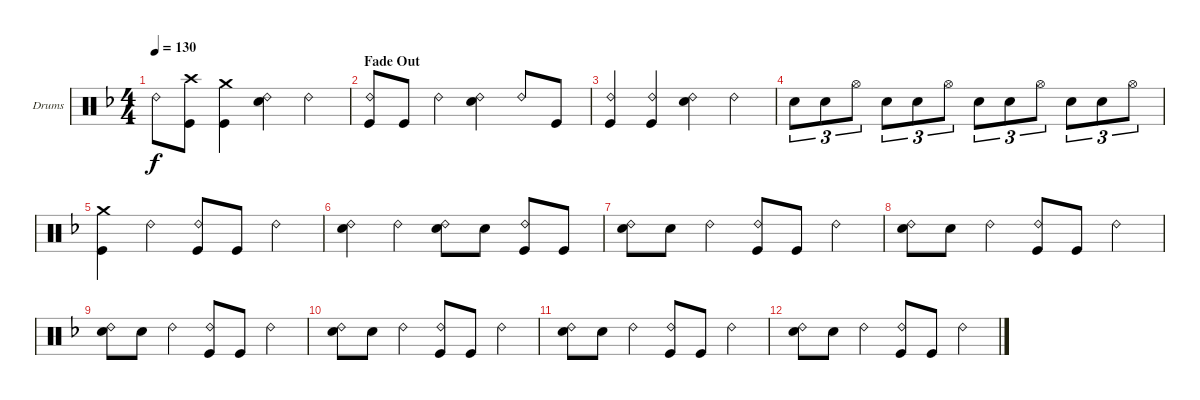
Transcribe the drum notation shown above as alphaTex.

\defaultSystemsLayout 4
\bracketExtendMode groupsimilarinstruments
\firstSystemTrackNameOrientation horizontal
\otherSystemsTrackNameOrientation horizontal
\track ("Drumkit" "Drums") {instrument percussion}
\staff {score}
\articulation defaults
\ts (4 4)
\tempo 130
\clef neutral
\ks dminor "Ride (bell) 2".8{dy f}
("Kick (hit)" "Crash high (hit)").8 ("Kick (hit)" "Crash medium (hit)").4 ("Snare (hit) 2" "Ride (bell) 2").4 "Ride (bell) 2".4 |
\section ("" "Fade Out")
("Kick (hit)" "Ride (bell) 2").8 "Kick (hit)".8 "Ride (bell) 2".4 ("Ride (bell) 2" "Snare (hit) 2").4 "Ride (bell) 2".8 "Kick (hit)".8 |
("Kick (hit)" "Ride (bell) 2").4 ("Kick (hit)" "Ride (bell) 2").4 ("Ride (bell) 2" "Snare (hit) 2").4 "Ride (bell) 2".4 |
"Snare (hit) 2".8{tu (3 2)} "Snare (hit) 2".8{tu (3 2)} "Hi-Hat (open)".8{tu (3 2)} "Snare (hit) 2".8{tu (3 2)} "Snare (hit) 2".8{tu (3 2)} "Hi-Hat (open)".8{tu (3 2)} "Snare (hit) 2".8{tu (3 2)} "Snare (hit) 2".8{tu (3 2)} "Hi-Hat (open)".8{tu (3 2)} "Snare (hit) 2".8{tu (3 2)} "Snare (hit) 2".8{tu (3 2)} "Hi-Hat (open)".8{tu (3 2)} |
("Kick (hit)" "Crash medium (hit)").4 "Ride (bell) 2".4 ("Kick (hit)" "Ride (bell) 2").8 "Kick (hit)".8 "Ride (bell) 2".4 |
("Snare (hit) 2" "Ride (bell) 2").4 "Ride (bell) 2".4 ("Snare (hit) 2" "Ride (bell) 2").8 "Snare (hit) 2".8 ("Kick (hit)" "Ride (bell) 2").8 "Kick (hit)".8 |
("Snare (hit) 2" "Ride (bell) 2").8 "Snare (hit) 2".8 "Ride (bell) 2".4 ("Ride (bell) 2" "Kick (hit)").8 "Kick (hit)".8 "Ride (bell) 2".4 |
("Snare (hit) 2" "Ride (bell) 2").8 "Snare (hit) 2".8 "Ride (bell) 2".4 ("Kick (hit)" "Ride (bell) 2").8 "Kick (hit)".8 "Ride (bell) 2".4 |
("Snare (hit) 2" "Ride (bell) 2").8 "Snare (hit) 2".8 "Ride (bell) 2".4 ("Kick (hit)" "Ride (bell) 2").8 "Kick (hit)".8 "Ride (bell) 2".4 |
("Snare (hit) 2" "Ride (bell) 2").8 "Snare (hit) 2".8 "Ride (bell) 2".4 ("Kick (hit)" "Ride (bell) 2").8 "Kick (hit)".8 "Ride (bell) 2".4 |
("Snare (hit) 2" "Ride (bell) 2").8 "Snare (hit) 2".8 "Ride (bell) 2".4 ("Kick (hit)" "Ride (bell) 2").8 "Kick (hit)".8 "Ride (bell) 2".4 |
("Snare (hit) 2" "Ride (bell) 2").8 "Snare (hit) 2".8 "Ride (bell) 2".4 ("Kick (hit)" "Ride (bell) 2").8 "Kick (hit)".8 "Ride (bell) 2".4
